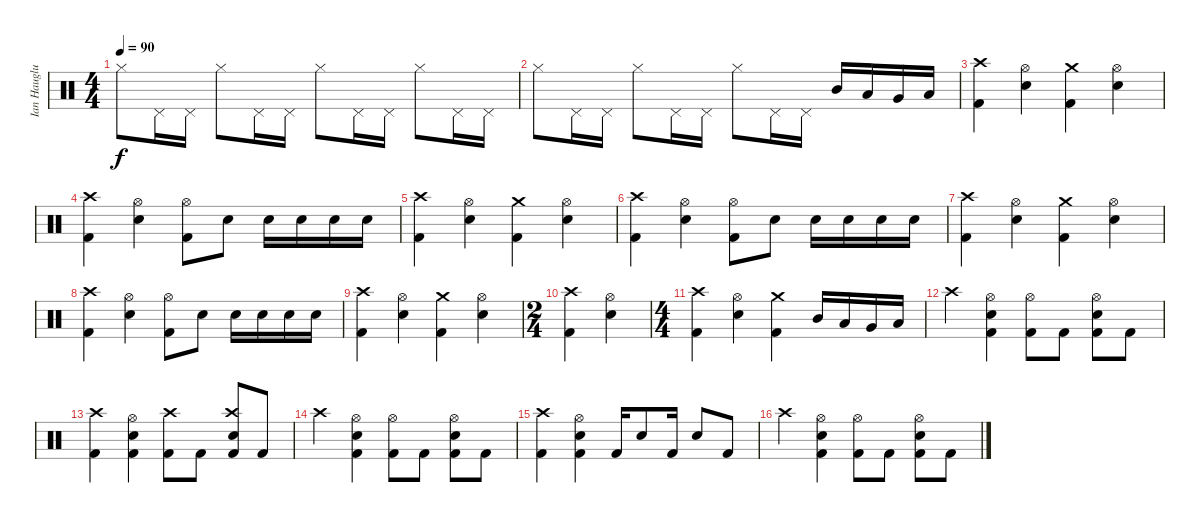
\track ("Ian Hauglund" "Ian Hauglu") {instrument percussion}
\staff {score}
\articulation defaults
\ts (4 4)
\tempo 90
\clef neutral
\ks c "Hi-Hat (closed)".8{dy f} "Pedal Hi-Hat (hit)".16 "Pedal Hi-Hat (hit)".16 "Hi-Hat (closed)".8 "Pedal Hi-Hat (hit)".16 "Pedal Hi-Hat (hit)".16 "Hi-Hat (closed)".8 "Pedal Hi-Hat (hit)".16 "Pedal Hi-Hat (hit)".16 "Hi-Hat (closed)".8 "Pedal Hi-Hat (hit)".16 "Pedal Hi-Hat (hit)".16
|
"Hi-Hat (closed)".8 "Pedal Hi-Hat (hit)".16 "Pedal Hi-Hat (hit)".16 "Hi-Hat (closed)".8 "Pedal Hi-Hat (hit)".16 "Pedal Hi-Hat (hit)".16 "Hi-Hat (closed)".8 "Pedal Hi-Hat (hit)".16 "Pedal Hi-Hat (hit)".16 "Mid Tom (hit)".16 "Low Tom (hit)".16 "Very Low Tom (hit)".16 "Low Floor Tom (hit)".16 |
("Kick (hit) 2" "Crash high (hit)").4 ("Electric Snare (hit)" "Hi-Hat (open)").4 ("Kick (hit) 2" "Crash medium (hit)").4 ("Electric Snare (hit)" "Hi-Hat (open)").4 |
("Kick (hit) 2" "Crash high (hit)").4 ("Electric Snare (hit)" "Hi-Hat (open)").4 ("Kick (hit) 2" "Hi-Hat (open)").8 "Electric Snare (hit)".8 "Electric Snare (hit)".16 "Electric Snare (hit)".16 "Electric Snare (hit)".16 "Electric Snare (hit)".16 |
("Kick (hit) 2" "Crash high (hit)").4 ("Electric Snare (hit)" "Hi-Hat (open)").4 ("Kick (hit) 2" "Crash medium (hit)").4 ("Electric Snare (hit)" "Hi-Hat (open)").4 |
("Kick (hit) 2" "Crash high (hit)").4 ("Electric Snare (hit)" "Hi-Hat (open)").4 ("Kick (hit) 2" "Hi-Hat (open)").8 "Electric Snare (hit)".8 "Electric Snare (hit)".16 "Electric Snare (hit)".16 "Electric Snare (hit)".16 "Electric Snare (hit)".16 |
("Kick (hit) 2" "Crash high (hit)").4 ("Electric Snare (hit)" "Hi-Hat (open)").4 ("Kick (hit) 2" "Crash medium (hit)").4 ("Electric Snare (hit)" "Hi-Hat (open)").4 |
("Kick (hit) 2" "Crash high (hit)").4 ("Electric Snare (hit)" "Hi-Hat (open)").4 ("Kick (hit) 2" "Hi-Hat (open)").8 "Electric Snare (hit)".8 "Electric Snare (hit)".16 "Electric Snare (hit)".16 "Electric Snare (hit)".16 "Electric Snare (hit)".16 |
("Kick (hit) 2" "Crash high (hit)").4 ("Electric Snare (hit)" "Hi-Hat (open)").4 ("Kick (hit) 2" "Crash medium (hit)").4 ("Electric Snare (hit)" "Hi-Hat (open)").4 |
\ts (2 4)
("Kick (hit) 2" "Crash high (hit)").4 ("Electric Snare (hit)" "Hi-Hat (open)").4 |
\ts (4 4)
("Kick (hit) 2" "Crash high (hit)").4 ("Electric Snare (hit)" "Hi-Hat (open)").4 ("Kick (hit) 2" "Crash medium (hit)").4 "Mid Tom (hit)".16 "Low Tom (hit)".16 "Very Low Tom (hit)".16 "Low Floor Tom (hit)".16 |
"Crash high (hit)".4 ("Kick (hit) 2" "Electric Snare (hit)" "Hi-Hat (open)").4 ("Kick (hit) 2" "Hi-Hat (open)").8 "Kick (hit) 2".8 ("Kick (hit) 2" "Hi-Hat (open)" "Electric Snare (hit)").8 "Kick (hit) 2".8 |
("Kick (hit) 2" "Crash high (hit)").4 ("Kick (hit) 2" "Electric Snare (hit)" "Hi-Hat (open)").4 ("Kick (hit) 2" "Crash high (hit)").8 "Kick (hit) 2".8 ("Kick (hit) 2" "Electric Snare (hit)" "Crash high (hit)").8 "Kick (hit) 2".8 |
"Crash high (hit)".4 ("Kick (hit) 2" "Electric Snare (hit)" "Hi-Hat (open)").4 ("Kick (hit) 2" "Hi-Hat (open)").8 "Kick (hit) 2".8 ("Kick (hit) 2" "Hi-Hat (open)" "Electric Snare (hit)").8 "Kick (hit) 2".8 |
("Kick (hit) 2" "Crash high (hit)").4 ("Kick (hit) 2" "Electric Snare (hit)" "Hi-Hat (open)").4 "Kick (hit) 2".16 "Electric Snare (hit)".8 "Kick (hit) 2".16 "Electric Snare (hit)".8 "Kick (hit) 2".8 |
"Crash high (hit)".4 ("Kick (hit) 2" "Electric Snare (hit)" "Hi-Hat (open)").4 ("Kick (hit) 2" "Hi-Hat (open)").8 "Kick (hit) 2".8 ("Kick (hit) 2" "Hi-Hat (open)" "Electric Snare (hit)").8 "Kick (hit) 2".8
